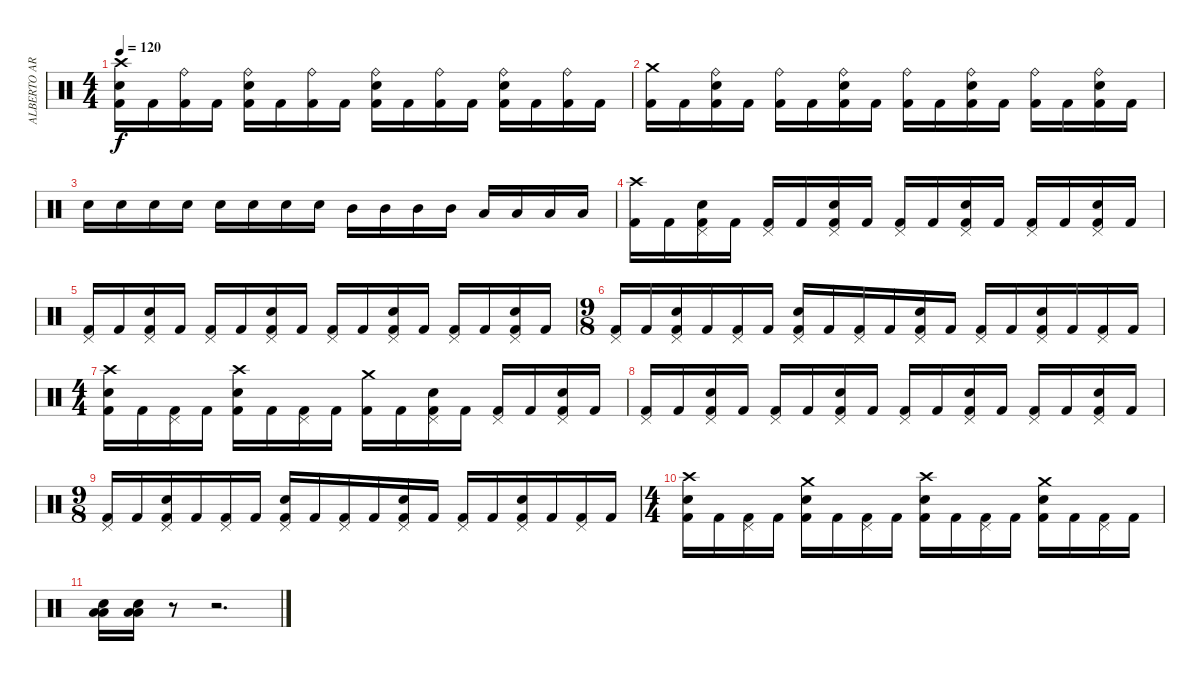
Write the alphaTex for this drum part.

\track ("ALBERTO ARDINES" "ALBERTO AR") {instrument percussion}
\staff {score}
\articulation defaults
\ts (4 4)
\tempo 120
\clef neutral
\ks c
("Crash high (hit)" "Electric Snare (hit)" "Kick (hit) 2").16{dy f} "Kick (hit) 2".16 ("Ride (bell)" "Kick (hit) 2").16 "Kick (hit) 2".16 ("Ride (bell)" "Electric Snare (hit)" "Kick (hit) 2").16 "Kick (hit) 2".16 ("Ride (bell)" "Kick (hit) 2").16 "Kick (hit) 2".16 ("Ride (bell)" "Electric Snare (hit)" "Kick (hit) 2").16 "Kick (hit) 2".16 ("Ride (bell)" "Kick (hit) 2").16 "Kick (hit) 2".16 ("Ride (bell)" "Electric Snare (hit)" "Kick (hit) 2").16 "Kick (hit) 2".16 ("Ride (bell)" "Kick (hit) 2").16 "Kick (hit) 2".16 |
("Crash medium (hit)" "Kick (hit) 2").16 "Kick (hit) 2".16 ("Ride (bell)" "Electric Snare (hit)" "Kick (hit) 2").16 "Kick (hit) 2".16 ("Ride (bell)" "Kick (hit) 2").16 "Kick (hit) 2".16 ("Ride (bell)" "Electric Snare (hit)" "Kick (hit) 2").16 "Kick (hit) 2".16 ("Ride (bell)" "Kick (hit) 2").16 "Kick (hit) 2".16 ("Ride (bell)" "Electric Snare (hit)" "Kick (hit) 2").16 "Kick (hit) 2".16 ("Ride (bell)" "Kick (hit) 2").16 "Kick (hit) 2".16 ("Ride (bell)" "Electric Snare (hit)" "Kick (hit) 2").16 "Kick (hit) 2".16 |
"Electric Snare (hit)".16 "Electric Snare (hit)".16 "Electric Snare (hit)".16 "Electric Snare (hit)".16 "Electric Snare (hit)".16 "Electric Snare (hit)".16 "Electric Snare (hit)".16 "Electric Snare (hit)".16 "Mid Tom (hit)".16 "Mid Tom (hit)".16 "Mid Tom (hit)".16 "Mid Tom (hit)".16 "Low Tom (hit)".16 "Low Tom (hit)".16 "Low Tom (hit)".16 "Low Tom (hit)".16 |
("Crash high (hit)" "Kick (hit) 2").16 "Kick (hit) 2".16 ("Pedal Hi-Hat (hit)" "Electric Snare (hit)" "Kick (hit) 2").16 "Kick (hit) 2".16 ("Pedal Hi-Hat (hit)" "Kick (hit) 2").16 "Kick (hit) 2".16 ("Pedal Hi-Hat (hit)" "Electric Snare (hit)" "Kick (hit) 2").16 "Kick (hit) 2".16 ("Pedal Hi-Hat (hit)" "Kick (hit) 2").16 "Kick (hit) 2".16 ("Pedal Hi-Hat (hit)" "Electric Snare (hit)" "Kick (hit) 2").16 "Kick (hit) 2".16 ("Pedal Hi-Hat (hit)" "Kick (hit) 2").16 "Kick (hit) 2".16 ("Pedal Hi-Hat (hit)" "Electric Snare (hit)" "Kick (hit) 2").16 "Kick (hit) 2".16 |
("Pedal Hi-Hat (hit)" "Kick (hit) 2").16 "Kick (hit) 2".16 ("Pedal Hi-Hat (hit)" "Electric Snare (hit)" "Kick (hit) 2").16 "Kick (hit) 2".16 ("Pedal Hi-Hat (hit)" "Kick (hit) 2").16 "Kick (hit) 2".16 ("Pedal Hi-Hat (hit)" "Electric Snare (hit)" "Kick (hit) 2").16 "Kick (hit) 2".16 ("Pedal Hi-Hat (hit)" "Kick (hit) 2").16 "Kick (hit) 2".16 ("Pedal Hi-Hat (hit)" "Electric Snare (hit)" "Kick (hit) 2").16 "Kick (hit) 2".16 ("Pedal Hi-Hat (hit)" "Kick (hit) 2").16 "Kick (hit) 2".16 ("Pedal Hi-Hat (hit)" "Electric Snare (hit)" "Kick (hit) 2").16 "Kick (hit) 2".16 |
\ts (9 8)
("Pedal Hi-Hat (hit)" "Kick (hit) 2").16 "Kick (hit) 2".16 ("Pedal Hi-Hat (hit)" "Electric Snare (hit)" "Kick (hit) 2").16 "Kick (hit) 2".16 ("Pedal Hi-Hat (hit)" "Kick (hit) 2").16 "Kick (hit) 2".16 ("Pedal Hi-Hat (hit)" "Electric Snare (hit)" "Kick (hit) 2").16 "Kick (hit) 2".16 ("Pedal Hi-Hat (hit)" "Kick (hit) 2").16 "Kick (hit) 2".16 ("Pedal Hi-Hat (hit)" "Electric Snare (hit)" "Kick (hit) 2").16 "Kick (hit) 2".16 ("Pedal Hi-Hat (hit)" "Kick (hit) 2").16 "Kick (hit) 2".16 ("Pedal Hi-Hat (hit)" "Electric Snare (hit)" "Kick (hit) 2").16 "Kick (hit) 2".16 ("Pedal Hi-Hat (hit)" "Kick (hit) 2").16 "Kick (hit) 2".16 |
\ts (4 4)
("Crash high (hit)" "Electric Snare (hit)" "Kick (hit) 2").16 "Kick (hit) 2".16 ("Pedal Hi-Hat (hit)" "Kick (hit) 2").16 "Kick (hit) 2".16 ("Crash high (hit)" "Electric Snare (hit)" "Kick (hit) 2").16 "Kick (hit) 2".16 ("Pedal Hi-Hat (hit)" "Kick (hit) 2").16 "Kick (hit) 2".16 ("Crash medium (hit)" "Kick (hit) 2").16 "Kick (hit) 2".16 ("Pedal Hi-Hat (hit)" "Electric Snare (hit)" "Kick (hit) 2").16 "Kick (hit) 2".16 ("Pedal Hi-Hat (hit)" "Kick (hit) 2").16 "Kick (hit) 2".16 ("Pedal Hi-Hat (hit)" "Electric Snare (hit)" "Kick (hit) 2").16 "Kick (hit) 2".16 |
("Pedal Hi-Hat (hit)" "Kick (hit) 2").16 "Kick (hit) 2".16 ("Pedal Hi-Hat (hit)" "Electric Snare (hit)" "Kick (hit) 2").16 "Kick (hit) 2".16 ("Pedal Hi-Hat (hit)" "Kick (hit) 2").16 "Kick (hit) 2".16 ("Pedal Hi-Hat (hit)" "Electric Snare (hit)" "Kick (hit) 2").16 "Kick (hit) 2".16 ("Pedal Hi-Hat (hit)" "Kick (hit) 2").16 "Kick (hit) 2".16 ("Pedal Hi-Hat (hit)" "Electric Snare (hit)" "Kick (hit) 2").16 "Kick (hit) 2".16 ("Pedal Hi-Hat (hit)" "Kick (hit) 2").16 "Kick (hit) 2".16 ("Pedal Hi-Hat (hit)" "Electric Snare (hit)" "Kick (hit) 2").16 "Kick (hit) 2".16 |
\ts (9 8)
("Pedal Hi-Hat (hit)" "Kick (hit) 2").16 "Kick (hit) 2".16 ("Pedal Hi-Hat (hit)" "Electric Snare (hit)" "Kick (hit) 2").16 "Kick (hit) 2".16 ("Pedal Hi-Hat (hit)" "Kick (hit) 2").16 "Kick (hit) 2".16 ("Pedal Hi-Hat (hit)" "Electric Snare (hit)" "Kick (hit) 2").16 "Kick (hit) 2".16 ("Pedal Hi-Hat (hit)" "Kick (hit) 2").16 "Kick (hit) 2".16 ("Pedal Hi-Hat (hit)" "Electric Snare (hit)" "Kick (hit) 2").16 "Kick (hit) 2".16 ("Pedal Hi-Hat (hit)" "Kick (hit) 2").16 "Kick (hit) 2".16 ("Pedal Hi-Hat (hit)" "Electric Snare (hit)" "Kick (hit) 2").16 "Kick (hit) 2".16 ("Pedal Hi-Hat (hit)" "Kick (hit) 2").16 "Kick (hit) 2".16 |
\ts (4 4)
("Crash high (hit)" "Electric Snare (hit)" "Kick (hit) 2").16 "Kick (hit) 2".16 ("Pedal Hi-Hat (hit)" "Kick (hit) 2").16 "Kick (hit) 2".16 ("Crash medium (hit)" "Electric Snare (hit)" "Kick (hit) 2").16 "Kick (hit) 2".16 ("Pedal Hi-Hat (hit)" "Kick (hit) 2").16 "Kick (hit) 2".16 ("Crash high (hit)" "Electric Snare (hit)" "Kick (hit) 2").16 "Kick (hit) 2".16 ("Pedal Hi-Hat (hit)" "Kick (hit) 2").16 "Kick (hit) 2".16 ("Crash medium (hit)" "Electric Snare (hit)" "Kick (hit) 2").16 "Kick (hit) 2".16 ("Pedal Hi-Hat (hit)" "Kick (hit) 2").16 "Kick (hit) 2".16 |
("Low Tom (hit)" "Low Floor Tom (hit)" "Electric Snare (hit)").16 ("Low Tom (hit)" "Low Floor Tom (hit)" "Electric Snare (hit)").16 r.8 r.2{d}
